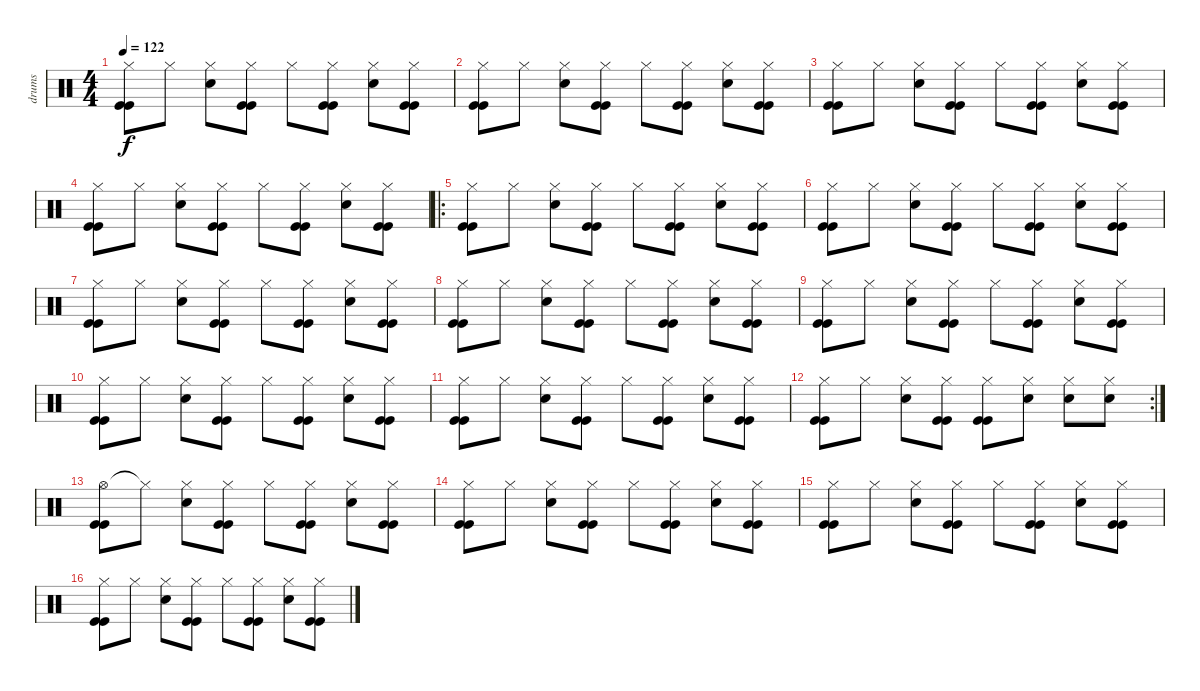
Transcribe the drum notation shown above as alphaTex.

\track ("drums" "drums") {instrument percussion}
\staff {score}
\articulation defaults
\ts (4 4)
\tempo 122
\clef neutral
\ks c
("Hi-Hat (closed)" "Kick (hit)" "Kick (hit)").8{dy f} "Hi-Hat (closed)".8 ("Hi-Hat (closed)" "Electric Snare (hit)").8 ("Hi-Hat (closed)" "Kick (hit)" "Kick (hit)").8 "Hi-Hat (closed)".8 ("Hi-Hat (closed)" "Kick (hit)" "Kick (hit)").8 ("Hi-Hat (closed)" "Electric Snare (hit)").8 ("Hi-Hat (closed)" "Kick (hit)" "Kick (hit)").8 |
("Hi-Hat (closed)" "Kick (hit)" "Kick (hit)").8 "Hi-Hat (closed)".8 ("Hi-Hat (closed)" "Electric Snare (hit)").8 ("Hi-Hat (closed)" "Kick (hit)" "Kick (hit)").8 "Hi-Hat (closed)".8 ("Hi-Hat (closed)" "Kick (hit)" "Kick (hit)").8 ("Hi-Hat (closed)" "Electric Snare (hit)").8 ("Hi-Hat (closed)" "Kick (hit)" "Kick (hit)").8 |
("Hi-Hat (closed)" "Kick (hit)" "Kick (hit)").8 "Hi-Hat (closed)".8 ("Hi-Hat (closed)" "Electric Snare (hit)").8 ("Hi-Hat (closed)" "Kick (hit)" "Kick (hit)").8 "Hi-Hat (closed)".8 ("Hi-Hat (closed)" "Kick (hit)" "Kick (hit)").8 ("Hi-Hat (closed)" "Electric Snare (hit)").8 ("Hi-Hat (closed)" "Kick (hit)" "Kick (hit)").8 |
("Hi-Hat (closed)" "Kick (hit)" "Kick (hit)").8 "Hi-Hat (closed)".8 ("Hi-Hat (closed)" "Electric Snare (hit)").8 ("Hi-Hat (closed)" "Kick (hit)" "Kick (hit)").8 "Hi-Hat (closed)".8 ("Hi-Hat (closed)" "Kick (hit)" "Kick (hit)").8 ("Hi-Hat (closed)" "Electric Snare (hit)").8 ("Hi-Hat (closed)" "Kick (hit)" "Kick (hit)").8 |
\ro
("Hi-Hat (closed)" "Kick (hit)" "Kick (hit)").8 "Hi-Hat (closed)".8 ("Hi-Hat (closed)" "Electric Snare (hit)").8 ("Hi-Hat (closed)" "Kick (hit)" "Kick (hit)").8 "Hi-Hat (closed)".8 ("Hi-Hat (closed)" "Kick (hit)" "Kick (hit)").8 ("Hi-Hat (closed)" "Electric Snare (hit)").8 ("Hi-Hat (closed)" "Kick (hit)" "Kick (hit)").8 |
("Hi-Hat (closed)" "Kick (hit)" "Kick (hit)").8 "Hi-Hat (closed)".8 ("Hi-Hat (closed)" "Electric Snare (hit)").8 ("Hi-Hat (closed)" "Kick (hit)" "Kick (hit)").8 "Hi-Hat (closed)".8 ("Hi-Hat (closed)" "Kick (hit)" "Kick (hit)").8 ("Hi-Hat (closed)" "Electric Snare (hit)").8 ("Hi-Hat (closed)" "Kick (hit)" "Kick (hit)").8 |
("Hi-Hat (closed)" "Kick (hit)" "Kick (hit)").8 "Hi-Hat (closed)".8 ("Hi-Hat (closed)" "Electric Snare (hit)").8 ("Hi-Hat (closed)" "Kick (hit)" "Kick (hit)").8 "Hi-Hat (closed)".8 ("Hi-Hat (closed)" "Kick (hit)" "Kick (hit)").8 ("Hi-Hat (closed)" "Electric Snare (hit)").8 ("Hi-Hat (closed)" "Kick (hit)" "Kick (hit)").8 |
("Hi-Hat (closed)" "Kick (hit)" "Kick (hit)").8 "Hi-Hat (closed)".8 ("Hi-Hat (closed)" "Electric Snare (hit)").8 ("Hi-Hat (closed)" "Kick (hit)" "Kick (hit)").8 "Hi-Hat (closed)".8 ("Hi-Hat (closed)" "Kick (hit)" "Kick (hit)").8 ("Hi-Hat (closed)" "Electric Snare (hit)").8 ("Hi-Hat (closed)" "Kick (hit)" "Kick (hit)").8 |
("Hi-Hat (closed)" "Kick (hit)" "Kick (hit)").8 "Hi-Hat (closed)".8 ("Hi-Hat (closed)" "Electric Snare (hit)").8 ("Hi-Hat (closed)" "Kick (hit)" "Kick (hit)").8 "Hi-Hat (closed)".8 ("Hi-Hat (closed)" "Kick (hit)" "Kick (hit)").8 ("Hi-Hat (closed)" "Electric Snare (hit)").8 ("Hi-Hat (closed)" "Kick (hit)" "Kick (hit)").8 |
("Hi-Hat (closed)" "Kick (hit)" "Kick (hit)").8 "Hi-Hat (closed)".8 ("Hi-Hat (closed)" "Electric Snare (hit)").8 ("Hi-Hat (closed)" "Kick (hit)" "Kick (hit)").8 "Hi-Hat (closed)".8 ("Hi-Hat (closed)" "Kick (hit)" "Kick (hit)").8 ("Hi-Hat (closed)" "Electric Snare (hit)").8 ("Hi-Hat (closed)" "Kick (hit)" "Kick (hit)").8 |
("Hi-Hat (closed)" "Kick (hit)" "Kick (hit)").8 "Hi-Hat (closed)".8 ("Hi-Hat (closed)" "Electric Snare (hit)").8 ("Hi-Hat (closed)" "Kick (hit)" "Kick (hit)").8 "Hi-Hat (closed)".8 ("Hi-Hat (closed)" "Kick (hit)" "Kick (hit)").8 ("Hi-Hat (closed)" "Electric Snare (hit)").8 ("Hi-Hat (closed)" "Kick (hit)" "Kick (hit)").8 |
\rc 2
("Hi-Hat (closed)" "Kick (hit)" "Kick (hit)").8 "Hi-Hat (closed)".8 ("Hi-Hat (closed)" "Electric Snare (hit)").8 ("Hi-Hat (closed)" "Kick (hit)" "Kick (hit)").8 ("Hi-Hat (closed)" "Kick (hit)" "Kick (hit)").8 ("Hi-Hat (closed)" "Electric Snare (hit)").8 ("Hi-Hat (closed)" "Electric Snare (hit)").8 ("Hi-Hat (closed)" "Electric Snare (hit)").8 |
("Hi-Hat (open)" "Kick (hit)" "Kick (hit)").8 "Hi-Hat (closed)"{t}.8 ("Hi-Hat (closed)" "Electric Snare (hit)").8 ("Hi-Hat (closed)" "Kick (hit)" "Kick (hit)").8 "Hi-Hat (closed)".8 ("Hi-Hat (closed)" "Kick (hit)" "Kick (hit)").8 ("Hi-Hat (closed)" "Electric Snare (hit)").8 ("Hi-Hat (closed)" "Kick (hit)" "Kick (hit)").8 |
("Hi-Hat (closed)" "Kick (hit)" "Kick (hit)").8 "Hi-Hat (closed)".8 ("Hi-Hat (closed)" "Electric Snare (hit)").8 ("Hi-Hat (closed)" "Kick (hit)" "Kick (hit)").8 "Hi-Hat (closed)".8 ("Hi-Hat (closed)" "Kick (hit)" "Kick (hit)").8 ("Hi-Hat (closed)" "Electric Snare (hit)").8 ("Hi-Hat (closed)" "Kick (hit)" "Kick (hit)").8 |
("Hi-Hat (closed)" "Kick (hit)" "Kick (hit)").8 "Hi-Hat (closed)".8 ("Hi-Hat (closed)" "Electric Snare (hit)").8 ("Hi-Hat (closed)" "Kick (hit)" "Kick (hit)").8 "Hi-Hat (closed)".8 ("Hi-Hat (closed)" "Kick (hit)" "Kick (hit)").8 ("Hi-Hat (closed)" "Electric Snare (hit)").8 ("Hi-Hat (closed)" "Kick (hit)" "Kick (hit)").8 |
("Hi-Hat (closed)" "Kick (hit)" "Kick (hit)").8 "Hi-Hat (closed)".8 ("Hi-Hat (closed)" "Electric Snare (hit)").8 ("Hi-Hat (closed)" "Kick (hit)" "Kick (hit)").8 "Hi-Hat (closed)".8 ("Hi-Hat (closed)" "Kick (hit)" "Kick (hit)").8 ("Hi-Hat (closed)" "Electric Snare (hit)").8 ("Hi-Hat (closed)" "Kick (hit)" "Kick (hit)").8
